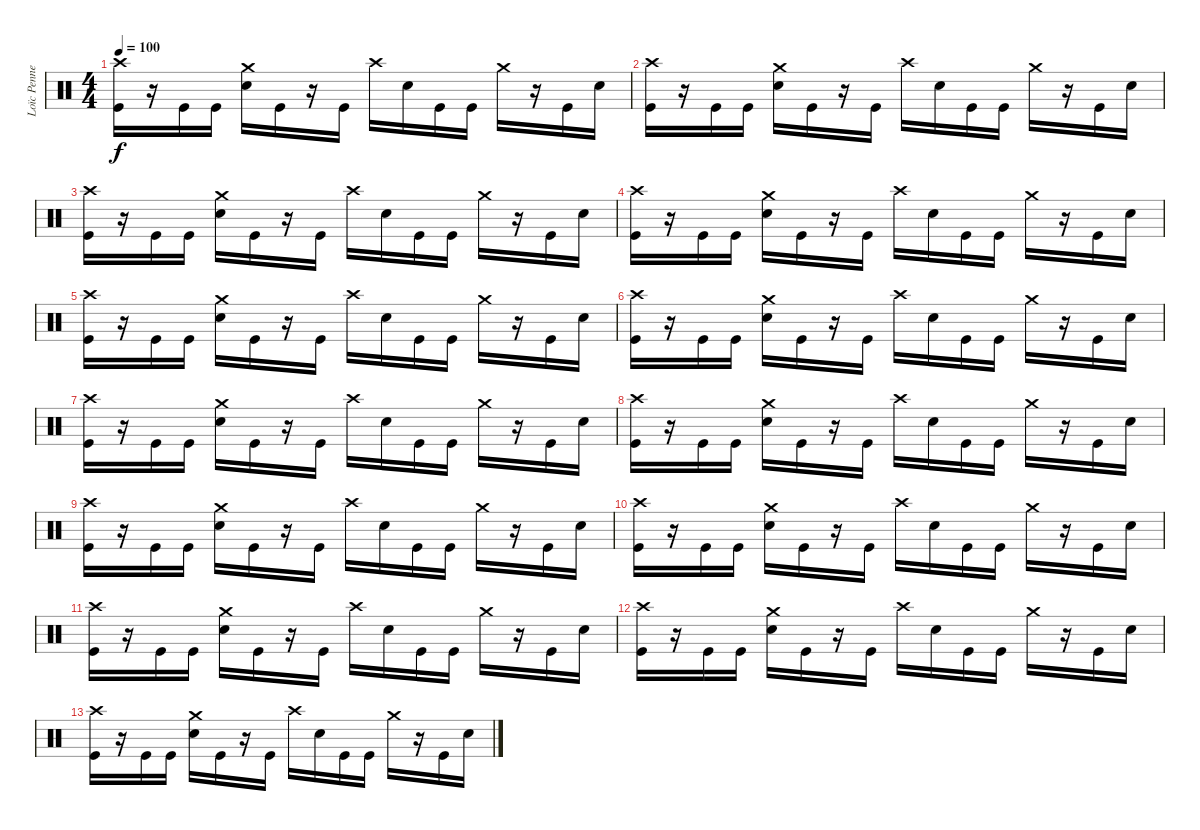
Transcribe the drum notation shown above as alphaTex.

\track ("Loïc Pennequin ( Batterie ) " "Loïc Penne") {instrument percussion}
\staff {score}
\articulation defaults
\ts (4 4)
\tempo 100
\clef neutral
\ks c
("Crash high (hit)" "Kick (hit)").16{dy f} r.16 "Kick (hit)".16 "Kick (hit)".16 ("Crash medium (hit)" "Electric Snare (hit)").16 "Kick (hit)".16 r.16 "Kick (hit)".16 "Crash high (hit)".16 "Electric Snare (hit)".16 "Kick (hit)".16 "Kick (hit)".16 "Crash medium (hit)".16 r.16 "Kick (hit)".16 "Electric Snare (hit)".16 |
("Crash high (hit)" "Kick (hit)").16 r.16 "Kick (hit)".16 "Kick (hit)".16 ("Crash medium (hit)" "Electric Snare (hit)").16 "Kick (hit)".16 r.16 "Kick (hit)".16 "Crash high (hit)".16 "Electric Snare (hit)".16 "Kick (hit)".16 "Kick (hit)".16 "Crash medium (hit)".16 r.16 "Kick (hit)".16 "Electric Snare (hit)".16 |
("Crash high (hit)" "Kick (hit)").16 r.16 "Kick (hit)".16 "Kick (hit)".16 ("Crash medium (hit)" "Electric Snare (hit)").16 "Kick (hit)".16 r.16 "Kick (hit)".16 "Crash high (hit)".16 "Electric Snare (hit)".16 "Kick (hit)".16 "Kick (hit)".16 "Crash medium (hit)".16 r.16 "Kick (hit)".16 "Electric Snare (hit)".16 |
("Crash high (hit)" "Kick (hit)").16 r.16 "Kick (hit)".16 "Kick (hit)".16 ("Crash medium (hit)" "Electric Snare (hit)").16 "Kick (hit)".16 r.16 "Kick (hit)".16 "Crash high (hit)".16 "Electric Snare (hit)".16 "Kick (hit)".16 "Kick (hit)".16 "Crash medium (hit)".16 r.16 "Kick (hit)".16 "Electric Snare (hit)".16 |
("Crash high (hit)" "Kick (hit)").16 r.16 "Kick (hit)".16 "Kick (hit)".16 ("Crash medium (hit)" "Electric Snare (hit)").16 "Kick (hit)".16 r.16 "Kick (hit)".16 "Crash high (hit)".16 "Electric Snare (hit)".16 "Kick (hit)".16 "Kick (hit)".16 "Crash medium (hit)".16 r.16 "Kick (hit)".16 "Electric Snare (hit)".16 |
("Crash high (hit)" "Kick (hit)").16 r.16 "Kick (hit)".16 "Kick (hit)".16 ("Crash medium (hit)" "Electric Snare (hit)").16 "Kick (hit)".16 r.16 "Kick (hit)".16 "Crash high (hit)".16 "Electric Snare (hit)".16 "Kick (hit)".16 "Kick (hit)".16 "Crash medium (hit)".16 r.16 "Kick (hit)".16 "Electric Snare (hit)".16 |
("Crash high (hit)" "Kick (hit)").16 r.16 "Kick (hit)".16 "Kick (hit)".16 ("Crash medium (hit)" "Electric Snare (hit)").16 "Kick (hit)".16 r.16 "Kick (hit)".16 "Crash high (hit)".16 "Electric Snare (hit)".16 "Kick (hit)".16 "Kick (hit)".16 "Crash medium (hit)".16 r.16 "Kick (hit)".16 "Electric Snare (hit)".16 |
("Crash high (hit)" "Kick (hit)").16 r.16 "Kick (hit)".16 "Kick (hit)".16 ("Crash medium (hit)" "Electric Snare (hit)").16 "Kick (hit)".16 r.16 "Kick (hit)".16 "Crash high (hit)".16 "Electric Snare (hit)".16 "Kick (hit)".16 "Kick (hit)".16 "Crash medium (hit)".16 r.16 "Kick (hit)".16 "Electric Snare (hit)".16 |
("Crash high (hit)" "Kick (hit)").16 r.16 "Kick (hit)".16 "Kick (hit)".16 ("Crash medium (hit)" "Electric Snare (hit)").16 "Kick (hit)".16 r.16 "Kick (hit)".16 "Crash high (hit)".16 "Electric Snare (hit)".16 "Kick (hit)".16 "Kick (hit)".16 "Crash medium (hit)".16 r.16 "Kick (hit)".16 "Electric Snare (hit)".16 |
("Crash high (hit)" "Kick (hit)").16 r.16 "Kick (hit)".16 "Kick (hit)".16 ("Crash medium (hit)" "Electric Snare (hit)").16 "Kick (hit)".16 r.16 "Kick (hit)".16 "Crash high (hit)".16 "Electric Snare (hit)".16 "Kick (hit)".16 "Kick (hit)".16 "Crash medium (hit)".16 r.16 "Kick (hit)".16 "Electric Snare (hit)".16 |
("Crash high (hit)" "Kick (hit)").16 r.16 "Kick (hit)".16 "Kick (hit)".16 ("Crash medium (hit)" "Electric Snare (hit)").16 "Kick (hit)".16 r.16 "Kick (hit)".16 "Crash high (hit)".16 "Electric Snare (hit)".16 "Kick (hit)".16 "Kick (hit)".16 "Crash medium (hit)".16 r.16 "Kick (hit)".16 "Electric Snare (hit)".16 |
("Crash high (hit)" "Kick (hit)").16 r.16 "Kick (hit)".16 "Kick (hit)".16 ("Crash medium (hit)" "Electric Snare (hit)").16 "Kick (hit)".16 r.16 "Kick (hit)".16 "Crash high (hit)".16 "Electric Snare (hit)".16 "Kick (hit)".16 "Kick (hit)".16 "Crash medium (hit)".16 r.16 "Kick (hit)".16 "Electric Snare (hit)".16 |
("Crash high (hit)" "Kick (hit)").16 r.16 "Kick (hit)".16 "Kick (hit)".16 ("Crash medium (hit)" "Electric Snare (hit)").16 "Kick (hit)".16 r.16 "Kick (hit)".16 "Crash high (hit)".16 "Electric Snare (hit)".16 "Kick (hit)".16 "Kick (hit)".16 "Crash medium (hit)".16 r.16 "Kick (hit)".16 "Electric Snare (hit)".16
